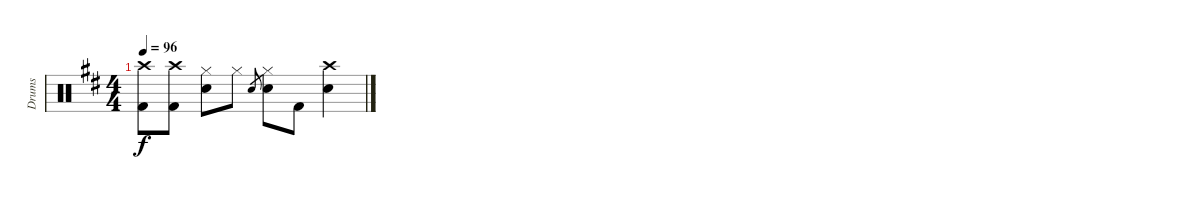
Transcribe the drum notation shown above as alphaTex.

\track ("Drums" "Drums") {instrument percussion}
\staff {score}
\articulation defaults
\ts (4 4)
\tempo 96
\clef neutral
\ks d
("Crash high (hit)" "Kick (hit) 2").8{dy f} ("Crash high (hit)" "Kick (hit) 2").8 ("Hi-Hat (closed)" "Electric Snare (hit)").8 "Hi-Hat (closed)".8 "Electric Snare (hit)".8{gr} ("Hi-Hat (closed)" "Electric Snare (hit)").8 "Kick (hit) 2".8 ("Crash high (hit)" "Electric Snare (hit)").4
